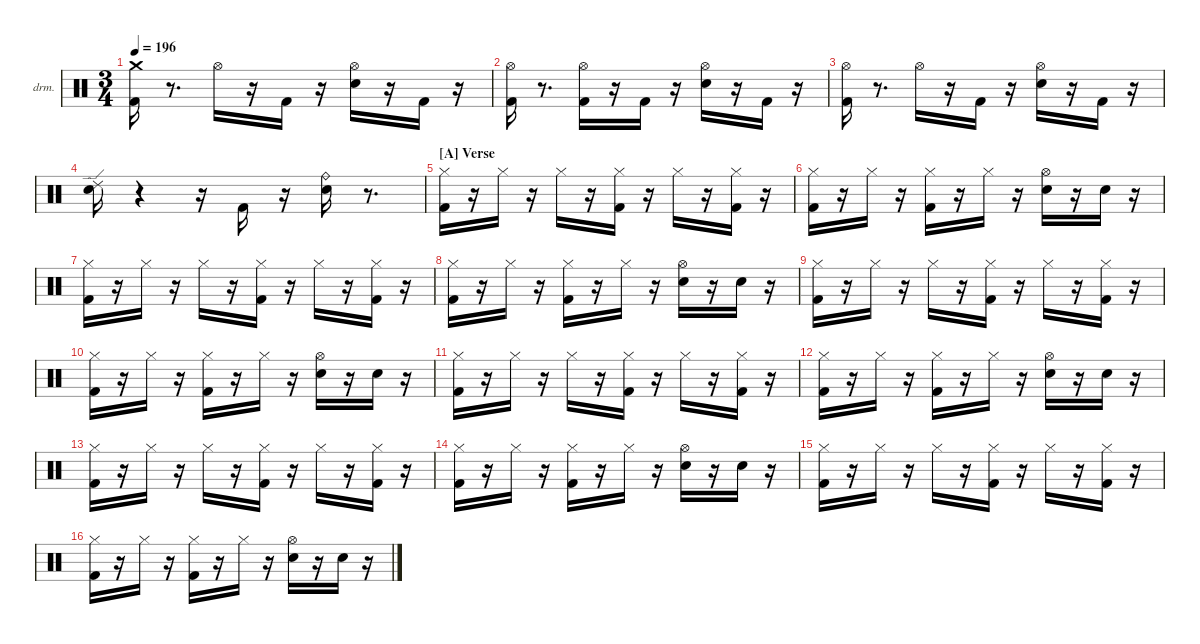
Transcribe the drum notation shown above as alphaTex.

\hideDynamics
\bracketExtendMode nobrackets
\firstSystemTrackNameOrientation horizontal
\otherSystemsTrackNameOrientation horizontal
\track ("EZdrummer 3" "drm.") {instrument percussion}
\staff {score}
\articulation defaults
\ts (3 4)
\tempo 196
\clef neutral
\ks aminor
("Kick (hit) 2" "Crash medium (hit)").16{dy fff beam Down} r.8{d beam Down} "Hi-Hat (open)"{acc #}.16{dy f beam Down} r.16{beam Down} "Kick (hit) 2".16{dy ff beam Up} r.16{beam Up} ("Snare (hit) 2" "Hi-Hat (open)"{acc #}).16{beam Down} r.16{beam Down} "Kick (hit) 2".16{dy f beam Up} r.16{beam Up} |
("Kick (hit) 2" "Hi-Hat (open)"{acc #}).16{dy ff beam Down} r.8{d beam Down} ("Kick (hit) 2" "Hi-Hat (open)"{acc #}).16{dy f beam Down} r.16{beam Down} "Kick (hit) 2".16{dy fff beam Up} r.16{beam Up} ("Snare (hit) 2" "Hi-Hat (open)"{acc #}).16{dy f beam Down} r.16{beam Down} "Kick (hit) 2".16{dy ff beam Up} r.16{beam Up} |
("Kick (hit) 2" "Hi-Hat (open)"{acc #}).16{beam Down} r.8{d beam Down} "Hi-Hat (open)"{acc #}.16{dy f beam Down} r.16{beam Down} "Kick (hit) 2".16{dy ff beam Up} r.16{beam Up} ("Snare (hit) 2" "Hi-Hat (open)"{acc #}).16{beam Down} r.16{beam Down} "Kick (hit) 2".16{dy mf beam Up} r.16{beam Up} |
("Snare (hit) 2" "Ride (edge) 2").16{dy fff beam Down} r.4{beam Down} r.16{beam Down} "Kick (hit) 2".16{dy ff beam Up} r.16{beam Up} ("Snare (hit) 2" "Ride (bell)").16{beam Down} r.8{d beam Down} |
\section ("A" "Verse")
("Kick (hit) 2" "Hi-Hat (closed)"{acc #}).16{dy fff beam Down} r.16{beam Down} "Hi-Hat (closed)"{acc #}.16{dy ppp beam Down} r.16{beam Down} "Hi-Hat (closed)"{acc #}.16{beam Down} r.16{beam Down} ("Kick (hit) 2" "Hi-Hat (closed)"{acc #}).16{dy mf beam Down} r.16{beam Down} "Hi-Hat (closed)"{acc #}.16{dy ppp beam Down} r.16{beam Down} ("Kick (hit) 2" "Hi-Hat (closed)"{acc #}).16{dy f beam Down} r.16{beam Down} |
("Kick (hit) 2" "Hi-Hat (closed)"{acc #}).16{dy fff beam Down} r.16{beam Down} "Hi-Hat (closed)"{acc #}.16{dy pp beam Down} r.16{beam Down} ("Kick (hit) 2" "Hi-Hat (closed)"{acc #}).16{dy mf beam Down} r.16{beam Down} "Hi-Hat (closed)"{acc #}.16{dy pp beam Down} r.16{beam Down} ("Snare (hit) 2" "Hi-Hat (open)"{acc #}).16{dy mf beam Down} r.16{beam Down} "Snare (hit) 2".16{dy ppp beam Down} r.16{beam Down} |
("Kick (hit) 2" "Hi-Hat (closed)"{acc #}).16{dy fff beam Down} r.16{beam Down} "Hi-Hat (closed)"{acc #}.16{dy ppp beam Down} r.16{beam Down} "Hi-Hat (closed)"{acc #}.16{beam Down} r.16{beam Down} ("Kick (hit) 2" "Hi-Hat (closed)"{acc #}).16{dy mf beam Down} r.16{beam Down} "Hi-Hat (closed)"{acc #}.16{dy ppp beam Down} r.16{beam Down} ("Kick (hit) 2" "Hi-Hat (closed)"{acc #}).16{dy f beam Down} r.16{beam Down} |
("Kick (hit) 2" "Hi-Hat (closed)"{acc #}).16{dy fff beam Down} r.16{beam Down} "Hi-Hat (closed)"{acc #}.16{dy pp beam Down} r.16{beam Down} ("Kick (hit) 2" "Hi-Hat (closed)"{acc #}).16{dy mf beam Down} r.16{beam Down} "Hi-Hat (closed)"{acc #}.16{dy pp beam Down} r.16{beam Down} ("Snare (hit) 2" "Hi-Hat (open)"{acc #}).16{dy mf beam Down} r.16{beam Down} "Snare (hit) 2".16{dy ppp beam Down} r.16{beam Down} |
("Kick (hit) 2" "Hi-Hat (closed)"{acc #}).16{dy fff beam Down} r.16{beam Down} "Hi-Hat (closed)"{acc #}.16{dy ppp beam Down} r.16{beam Down} "Hi-Hat (closed)"{acc #}.16{beam Down} r.16{beam Down} ("Kick (hit) 2" "Hi-Hat (closed)"{acc #}).16{dy mf beam Down} r.16{beam Down} "Hi-Hat (closed)"{acc #}.16{dy ppp beam Down} r.16{beam Down} ("Kick (hit) 2" "Hi-Hat (closed)"{acc #}).16{dy f beam Down} r.16{beam Down} |
("Kick (hit) 2" "Hi-Hat (closed)"{acc #}).16{dy fff beam Down} r.16{beam Down} "Hi-Hat (closed)"{acc #}.16{dy pp beam Down} r.16{beam Down} ("Kick (hit) 2" "Hi-Hat (closed)"{acc #}).16{dy mf beam Down} r.16{beam Down} "Hi-Hat (closed)"{acc #}.16{dy pp beam Down} r.16{beam Down} ("Snare (hit) 2" "Hi-Hat (open)"{acc #}).16{dy mf beam Down} r.16{beam Down} "Snare (hit) 2".16{dy ppp beam Down} r.16{beam Down} |
("Kick (hit) 2" "Hi-Hat (closed)"{acc #}).16{dy fff beam Down} r.16{beam Down} "Hi-Hat (closed)"{acc #}.16{dy ppp beam Down} r.16{beam Down} "Hi-Hat (closed)"{acc #}.16{beam Down} r.16{beam Down} ("Kick (hit) 2" "Hi-Hat (closed)"{acc #}).16{dy mf beam Down} r.16{beam Down} "Hi-Hat (closed)"{acc #}.16{dy ppp beam Down} r.16{beam Down} ("Kick (hit) 2" "Hi-Hat (closed)"{acc #}).16{dy f beam Down} r.16{beam Down} |
("Kick (hit) 2" "Hi-Hat (closed)"{acc #}).16{dy fff beam Down} r.16{beam Down} "Hi-Hat (closed)"{acc #}.16{dy pp beam Down} r.16{beam Down} ("Kick (hit) 2" "Hi-Hat (closed)"{acc #}).16{dy mf beam Down} r.16{beam Down} "Hi-Hat (closed)"{acc #}.16{dy pp beam Down} r.16{beam Down} ("Snare (hit) 2" "Hi-Hat (open)"{acc #}).16{dy mf beam Down} r.16{beam Down} "Snare (hit) 2".16{dy ppp beam Down} r.16{beam Down} |
("Kick (hit) 2" "Hi-Hat (closed)"{acc #}).16{dy fff beam Down} r.16{beam Down} "Hi-Hat (closed)"{acc #}.16{dy ppp beam Down} r.16{beam Down} "Hi-Hat (closed)"{acc #}.16{beam Down} r.16{beam Down} ("Kick (hit) 2" "Hi-Hat (closed)"{acc #}).16{dy mf beam Down} r.16{beam Down} "Hi-Hat (closed)"{acc #}.16{dy ppp beam Down} r.16{beam Down} ("Kick (hit) 2" "Hi-Hat (closed)"{acc #}).16{dy f beam Down} r.16{beam Down} |
("Kick (hit) 2" "Hi-Hat (closed)"{acc #}).16{dy fff beam Down} r.16{beam Down} "Hi-Hat (closed)"{acc #}.16{dy pp beam Down} r.16{beam Down} ("Kick (hit) 2" "Hi-Hat (closed)"{acc #}).16{dy mf beam Down} r.16{beam Down} "Hi-Hat (closed)"{acc #}.16{dy pp beam Down} r.16{beam Down} ("Snare (hit) 2" "Hi-Hat (open)"{acc #}).16{dy mf beam Down} r.16{beam Down} "Snare (hit) 2".16{dy ppp beam Down} r.16{beam Down} |
("Kick (hit) 2" "Hi-Hat (closed)"{acc #}).16{dy fff beam Down} r.16{beam Down} "Hi-Hat (closed)"{acc #}.16{dy ppp beam Down} r.16{beam Down} "Hi-Hat (closed)"{acc #}.16{beam Down} r.16{beam Down} ("Kick (hit) 2" "Hi-Hat (closed)"{acc #}).16{dy mf beam Down} r.16{beam Down} "Hi-Hat (closed)"{acc #}.16{dy ppp beam Down} r.16{beam Down} ("Kick (hit) 2" "Hi-Hat (closed)"{acc #}).16{dy f beam Down} r.16{beam Down} |
("Kick (hit) 2" "Hi-Hat (closed)"{acc #}).16{dy fff beam Down} r.16{beam Down} "Hi-Hat (closed)"{acc #}.16{dy pp beam Down} r.16{beam Down} ("Kick (hit) 2" "Hi-Hat (closed)"{acc #}).16{dy mf beam Down} r.16{beam Down} "Hi-Hat (closed)"{acc #}.16{dy pp beam Down} r.16{beam Down} ("Snare (hit) 2" "Hi-Hat (open)"{acc #}).16{dy mf beam Down} r.16{beam Down} "Snare (hit) 2".16{dy ppp beam Down} r.16{beam Down}
